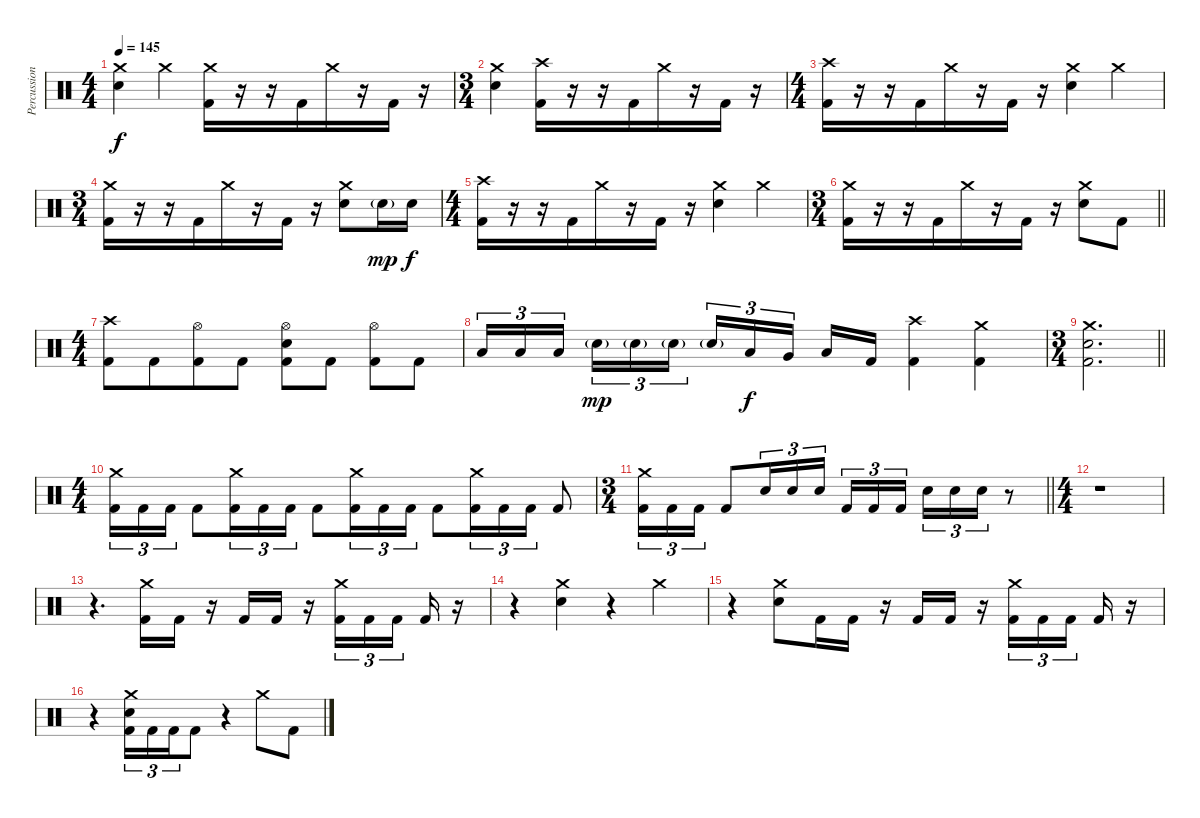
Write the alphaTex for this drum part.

\track ("Percussion" "Percussion") {instrument percussion}
\staff {score}
\articulation defaults
\ts (4 4)
\tempo 145
\clef neutral
\ks c
("Crash medium (hit)" "Electric Snare (hit)").4{dy f} "Crash medium (hit)".4 ("Crash medium (hit)" "Kick (hit) 2").16 r.16 r.16{beam merge} "Kick (hit) 2".16{beam merge} "Crash medium (hit)".16{beam merge} r.16 "Kick (hit) 2".16 r.16 |
\ts (3 4)
("Crash medium (hit)" "Electric Snare (hit)").4 ("Crash high (hit)" "Kick (hit) 2").16 r.16 r.16{beam merge} "Kick (hit) 2".16{beam merge} "Crash medium (hit)".16{beam merge} r.16 "Kick (hit) 2".16 r.16 |
\ts (4 4)
("Crash high (hit)" "Kick (hit) 2").16 r.16 r.16{beam merge} "Kick (hit) 2".16{beam merge} "Crash medium (hit)".16{beam merge} r.16 "Kick (hit) 2".16 r.16 ("Crash medium (hit)" "Electric Snare (hit)").4 "Crash medium (hit)".4 |
\ts (3 4)
("Crash medium (hit)" "Kick (hit) 2").16 r.16 r.16{beam merge} "Kick (hit) 2".16{beam merge} "Crash medium (hit)".16{beam merge} r.16 "Kick (hit) 2".16 r.16{beam merge} ("Crash medium (hit)" "Electric Snare (hit)").8{beam merge} "Electric Snare (hit)"{g}.16{dy mp} "Electric Snare (hit)".16{dy f} |
\ts (4 4)
("Crash high (hit)" "Kick (hit) 2").16 r.16 r.16{beam merge} "Kick (hit) 2".16{beam merge} "Crash medium (hit)".16{beam merge} r.16 "Kick (hit) 2".16 r.16 ("Crash medium (hit)" "Electric Snare (hit)").4 "Crash medium (hit)".4 |
\ts (3 4)
\barLineRight lightlight
("Crash medium (hit)" "Kick (hit) 2").16 r.16 r.16{beam merge} "Kick (hit) 2".16{beam merge} "Crash medium (hit)".16{beam merge} r.16 "Kick (hit) 2".16 r.16 ("Crash medium (hit)" "Electric Snare (hit)").8 "Kick (hit) 2".8 |
\ts (4 4)
\section ("" "")
("Crash high (hit)" "Kick (hit) 2").8 "Kick (hit) 2".8{beam merge} ("Hi-Hat (open)" "Kick (hit) 2").8{beam merge} "Kick (hit) 2".8 ("Hi-Hat (open)" "Electric Snare (hit)" "Kick (hit) 2").8 "Kick (hit) 2".8 ("Hi-Hat (open)" "Kick (hit) 2").8 "Kick (hit) 2".8 |
"Low Tom (hit)".16{tu (3 2)} "Low Tom (hit)".16{tu (3 2)} "Low Tom (hit)".16{tu (3 2) beam splitsecondary} "Electric Snare (hit)"{g}.16{tu (3 2) dy mp} "Electric Snare (hit)"{g}.16{tu (3 2)} "Electric Snare (hit)"{g}.16{tu (3 2)} "Electric Snare (hit)"{g}.16{tu (3 2)} "Low Tom (hit)".16{tu (3 2) dy f} "Very Low Tom (hit)".16{tu (3 2) beam splitsecondary} "Low Floor Tom (hit)".16{beam merge} "Kick (hit) 2".16 ("Crash high (hit)" "Kick (hit) 2").4 ("Crash medium (hit)" "Kick (hit) 2").4 |
\ts (3 4)
\barLineRight lightlight
("Crash medium (hit)" "Electric Snare (hit)" "Kick (hit) 2").2{d} |
\ts (4 4)
("Crash medium (hit)" "Kick (hit) 2").16{tu (3 2) beam merge} "Kick (hit) 2".16{tu (3 2) beam merge} "Kick (hit) 2".16{tu (3 2)} "Kick (hit) 2".8{beam merge} ("Crash medium (hit)" "Kick (hit) 2").16{tu (3 2) beam merge} "Kick (hit) 2".16{tu (3 2) beam merge} "Kick (hit) 2".16{tu (3 2)} "Kick (hit) 2".8{beam merge} ("Crash medium (hit)" "Kick (hit) 2").16{tu (3 2) beam merge} "Kick (hit) 2".16{tu (3 2) beam merge} "Kick (hit) 2".16{tu (3 2)} "Kick (hit) 2".8{beam merge} ("Crash medium (hit)" "Kick (hit) 2").16{tu (3 2) beam merge} "Kick (hit) 2".16{tu (3 2) beam merge} "Kick (hit) 2".16{tu (3 2)} "Kick (hit) 2".8 |
\ts (3 4)
\barLineRight lightlight
("Crash medium (hit)" "Kick (hit) 2").16{tu (3 2) beam merge} "Kick (hit) 2".16{tu (3 2) beam merge} "Kick (hit) 2".16{tu (3 2)} "Kick (hit) 2".8{beam merge} "Electric Snare (hit)".16{tu (3 2)} "Electric Snare (hit)".16{tu (3 2) beam merge} "Electric Snare (hit)".16{tu (3 2) beam splitsecondary} "Kick (hit) 2".16{tu (3 2) beam merge} "Kick (hit) 2".16{tu (3 2)} "Kick (hit) 2".16{tu (3 2)} "Electric Snare (hit)".16{tu (3 2)} "Electric Snare (hit)".16{tu (3 2) beam merge} "Electric Snare (hit)".16{tu (3 2) beam merge} r.8 |
\ts (4 4)
\section ("" "")
r.1 |
r.4{d beam merge} ("Crash medium (hit)" "Kick (hit) 2").16{beam merge} "Kick (hit) 2".16 r.16{beam merge} "Kick (hit) 2".16 "Kick (hit) 2".16 r.16 ("Crash medium (hit)" "Kick (hit) 2").16{tu (3 2)} "Kick (hit) 2".16{tu (3 2)} "Kick (hit) 2".16{tu (3 2) beam splitsecondary} "Kick (hit) 2".16 r.16 |
r.4{beam merge} ("Crash medium (hit)" "Electric Snare (hit)").4 r.4 "Crash medium (hit)".4 |
r.4 ("Crash medium (hit)" "Electric Snare (hit)").8{beam merge} "Kick (hit) 2".16{beam merge} "Kick (hit) 2".16 r.16{beam merge} "Kick (hit) 2".16 "Kick (hit) 2".16 r.16 ("Crash medium (hit)" "Kick (hit) 2").16{tu (3 2)} "Kick (hit) 2".16{tu (3 2)} "Kick (hit) 2".16{tu (3 2) beam splitsecondary} "Kick (hit) 2".16 r.16 |
r.4 ("Crash medium (hit)" "Electric Snare (hit)" "Kick (hit) 2").16{tu (3 2)} "Kick (hit) 2".16{tu (3 2)} "Kick (hit) 2".16{tu (3 2) beam merge} "Kick (hit) 2".8 r.4 "Crash medium (hit)".8 "Kick (hit) 2".8
